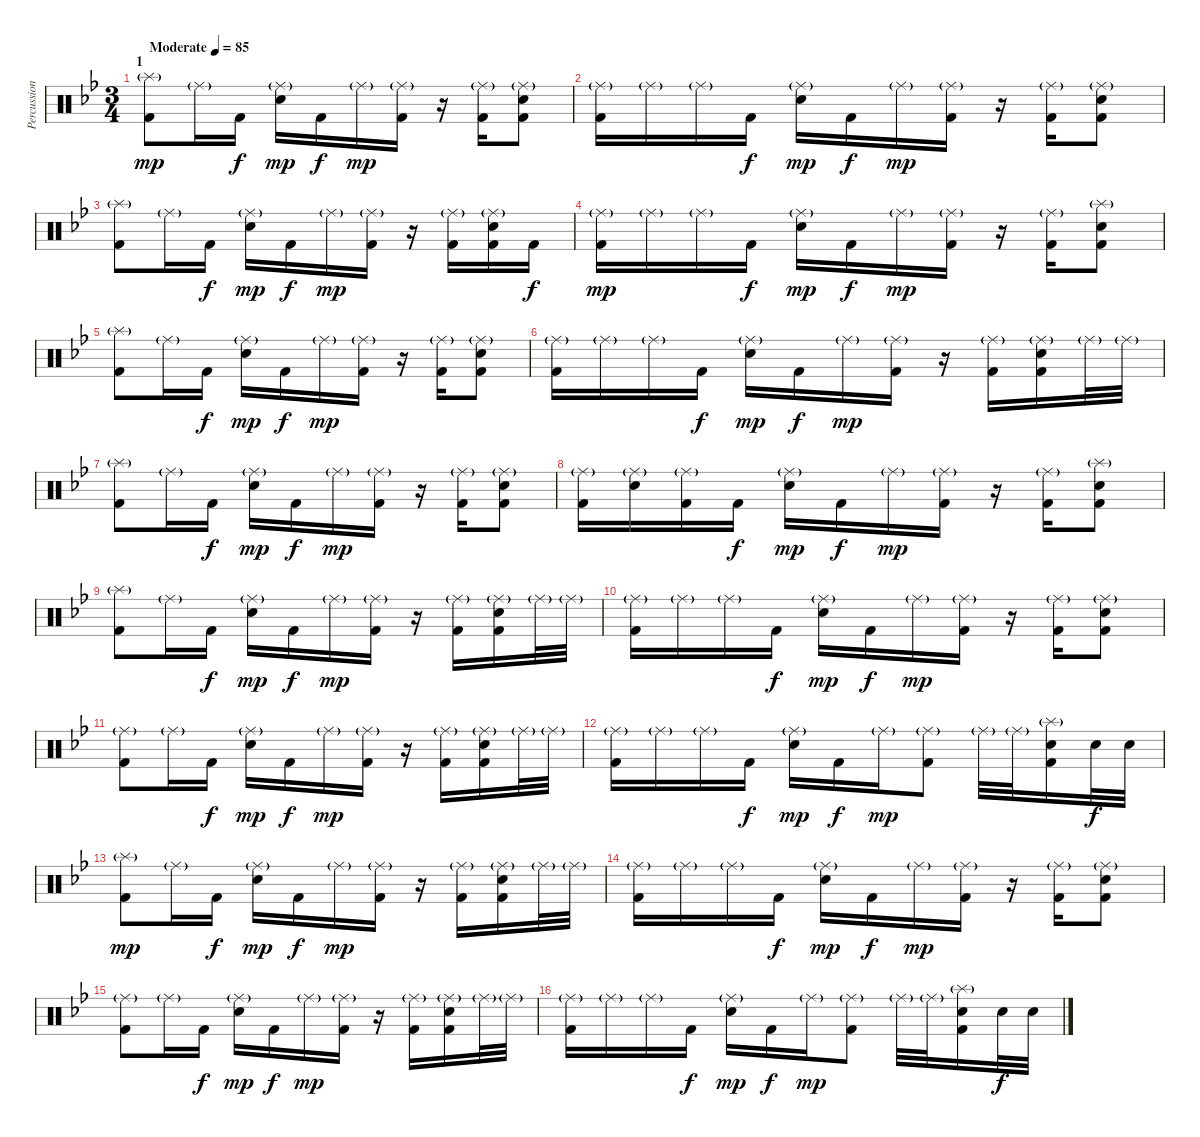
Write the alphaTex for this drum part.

\track ("Percussion" "Percussion") {instrument percussion}
\staff {score}
\articulation defaults
\ts (3 4)
\section ("" "1")
\tempo (85 "Moderate")
\clef neutral
\ks bb
("Splash (hit)"{g} "Kick (hit) 2").8{dy mp} "Ride (middle)"{g}.16 "Kick (hit) 2".16{dy f} ("Ride (middle)"{g} "Snare (hit) 2").16{dy mp} "Kick (hit) 2".16{dy f} "Ride (middle)"{g}.16{dy mp} ("Ride (middle)"{g} "Kick (hit) 2").16 r.16 ("Ride (middle)"{g} "Kick (hit) 2").16 ("Ride (middle)"{g} "Snare (hit) 2" "Kick (hit) 2").8 |
("Ride (middle)"{g} "Kick (hit) 2").16 "Ride (middle)"{g}.16 "Ride (middle)"{g}.16 "Kick (hit) 2".16{dy f} ("Ride (middle)"{g} "Snare (hit) 2").16{dy mp} "Kick (hit) 2".16{dy f} "Ride (middle)"{g}.16{dy mp} ("Ride (middle)"{g} "Kick (hit) 2").16 r.16 ("Ride (middle)"{g} "Kick (hit) 2").16 ("Ride (middle)"{g} "Snare (hit) 2" "Kick (hit) 2").8 |
("Splash (hit)"{g} "Kick (hit) 2").8 "Ride (middle)"{g}.16 "Kick (hit) 2".16{dy f} ("Ride (middle)"{g} "Snare (hit) 2").16{dy mp} "Kick (hit) 2".16{dy f} "Ride (middle)"{g}.16{dy mp} ("Ride (middle)"{g} "Kick (hit) 2").16 r.16 ("Ride (middle)"{g} "Kick (hit) 2").16 ("Ride (middle)"{g} "Snare (hit) 2" "Kick (hit) 2").16 "Kick (hit) 2".16{dy f} |
("Ride (middle)"{g} "Kick (hit) 2").16{dy mp} "Ride (middle)"{g}.16 "Ride (middle)"{g}.16 "Kick (hit) 2".16{dy f} ("Ride (middle)"{g} "Snare (hit) 2").16{dy mp} "Kick (hit) 2".16{dy f} "Ride (middle)"{g}.16{dy mp} ("Ride (middle)"{g} "Kick (hit) 2").16 r.16 ("Ride (middle)"{g} "Kick (hit) 2").16 ("Splash (hit)"{g} "Snare (hit) 2" "Kick (hit) 2").8 |
("Splash (hit)"{g} "Kick (hit) 2").8 "Ride (middle)"{g}.16 "Kick (hit) 2".16{dy f} ("Ride (middle)"{g} "Snare (hit) 2").16{dy mp} "Kick (hit) 2".16{dy f} "Ride (middle)"{g}.16{dy mp} ("Ride (middle)"{g} "Kick (hit) 2").16 r.16 ("Ride (middle)"{g} "Kick (hit) 2").16 ("Ride (middle)"{g} "Snare (hit) 2" "Kick (hit) 2").8 |
("Ride (middle)"{g} "Kick (hit) 2").16 "Ride (middle)"{g}.16 "Ride (middle)"{g}.16 "Kick (hit) 2".16{dy f} ("Ride (middle)"{g} "Snare (hit) 2").16{dy mp} "Kick (hit) 2".16{dy f} "Ride (middle)"{g}.16{dy mp} ("Ride (middle)"{g} "Kick (hit) 2").16 r.16 ("Ride (middle)"{g} "Kick (hit) 2").16 ("Ride (middle)"{g} "Snare (hit) 2" "Kick (hit) 2").16 "Ride (middle)"{g}.32 "Ride (middle)"{g}.32 |
("Splash (hit)"{g} "Kick (hit) 2").8 "Ride (middle)"{g}.16 "Kick (hit) 2".16{dy f} ("Ride (middle)"{g} "Snare (hit) 2").16{dy mp} "Kick (hit) 2".16{dy f} "Ride (middle)"{g}.16{dy mp} ("Ride (middle)"{g} "Kick (hit) 2").16 r.16 ("Ride (middle)"{g} "Kick (hit) 2").16 ("Ride (middle)"{g} "Snare (hit) 2" "Kick (hit) 2").8 |
("Ride (middle)"{g} "Kick (hit) 2").16 ("Ride (middle)"{g} "Snare (hit) 2").16 ("Ride (middle)"{g} "Kick (hit) 2").16 "Kick (hit) 2".16{dy f} ("Ride (middle)"{g} "Snare (hit) 2").16{dy mp} "Kick (hit) 2".16{dy f} "Ride (middle)"{g}.16{dy mp} ("Ride (middle)"{g} "Kick (hit) 2").16 r.16 ("Ride (middle)"{g} "Kick (hit) 2").16 ("Splash (hit)"{g} "Snare (hit) 2" "Kick (hit) 2").8 |
("Splash (hit)"{g} "Kick (hit) 2").8 "Ride (middle)"{g}.16 "Kick (hit) 2".16{dy f} ("Ride (middle)"{g} "Snare (hit) 2").16{dy mp} "Kick (hit) 2".16{dy f} "Ride (middle)"{g}.16{dy mp} ("Ride (middle)"{g} "Kick (hit) 2").16 r.16 ("Ride (middle)"{g} "Kick (hit) 2").16 ("Ride (middle)"{g} "Snare (hit) 2" "Kick (hit) 2").16 "Ride (middle)"{g}.32 "Ride (middle)"{g}.32 |
("Ride (middle)"{g} "Kick (hit) 2").16 "Ride (middle)"{g}.16 "Ride (middle)"{g}.16 "Kick (hit) 2".16{dy f} ("Ride (middle)"{g} "Snare (hit) 2").16{dy mp} "Kick (hit) 2".16{dy f} "Ride (middle)"{g}.16{dy mp} ("Ride (middle)"{g} "Kick (hit) 2").16 r.16 ("Ride (middle)"{g} "Kick (hit) 2").16 ("Ride (middle)"{g} "Snare (hit) 2" "Kick (hit) 2").8 |
("Ride (middle)"{g} "Kick (hit) 2").8 "Ride (middle)"{g}.16 "Kick (hit) 2".16{dy f} ("Ride (middle)"{g} "Snare (hit) 2").16{dy mp} "Kick (hit) 2".16{dy f} "Ride (middle)"{g}.16{dy mp} ("Ride (middle)"{g} "Kick (hit) 2").16 r.16 ("Ride (middle)"{g} "Kick (hit) 2").16 ("Ride (middle)"{g} "Snare (hit) 2" "Kick (hit) 2").16 "Ride (middle)"{g}.32 "Ride (middle)"{g}.32 |
("Ride (middle)"{g} "Kick (hit) 2").16 "Ride (middle)"{g}.16 "Ride (middle)"{g}.16 "Kick (hit) 2".16{dy f} ("Ride (middle)"{g} "Snare (hit) 2").16{dy mp} "Kick (hit) 2".16{dy f} "Ride (middle)"{g}.16{dy mp} ("Ride (middle)"{g} "Kick (hit) 2").8 "Ride (middle)"{g}.32 "Ride (middle)"{g}.32 ("Splash (hit)"{g} "Snare (hit) 2" "Kick (hit) 2").16 "Snare (hit) 2".32{dy f} "Snare (hit) 2".32 |
("Splash (hit)"{g} "Kick (hit) 2").8{dy mp} "Ride (middle)"{g}.16 "Kick (hit) 2".16{dy f} ("Ride (middle)"{g} "Snare (hit) 2").16{dy mp} "Kick (hit) 2".16{dy f} "Ride (middle)"{g}.16{dy mp} ("Ride (middle)"{g} "Kick (hit) 2").16 r.16 ("Ride (middle)"{g} "Kick (hit) 2").16 ("Ride (middle)"{g} "Snare (hit) 2" "Kick (hit) 2").16 "Ride (middle)"{g}.32 "Ride (middle)"{g}.32 |
("Ride (middle)"{g} "Kick (hit) 2").16 "Ride (middle)"{g}.16 "Ride (middle)"{g}.16 "Kick (hit) 2".16{dy f} ("Ride (middle)"{g} "Snare (hit) 2").16{dy mp} "Kick (hit) 2".16{dy f} "Ride (middle)"{g}.16{dy mp} ("Ride (middle)"{g} "Kick (hit) 2").16 r.16 ("Ride (middle)"{g} "Kick (hit) 2").16 ("Ride (middle)"{g} "Snare (hit) 2" "Kick (hit) 2").8 |
("Ride (middle)"{g} "Kick (hit) 2").8 "Ride (middle)"{g}.16 "Kick (hit) 2".16{dy f} ("Ride (middle)"{g} "Snare (hit) 2").16{dy mp} "Kick (hit) 2".16{dy f} "Ride (middle)"{g}.16{dy mp} ("Ride (middle)"{g} "Kick (hit) 2").16 r.16 ("Ride (middle)"{g} "Kick (hit) 2").16 ("Ride (middle)"{g} "Snare (hit) 2" "Kick (hit) 2").16 "Ride (middle)"{g}.32 "Ride (middle)"{g}.32 |
("Ride (middle)"{g} "Kick (hit) 2").16 "Ride (middle)"{g}.16 "Ride (middle)"{g}.16 "Kick (hit) 2".16{dy f} ("Ride (middle)"{g} "Snare (hit) 2").16{dy mp} "Kick (hit) 2".16{dy f} "Ride (middle)"{g}.16{dy mp} ("Ride (middle)"{g} "Kick (hit) 2").8 "Ride (middle)"{g}.32 "Ride (middle)"{g}.32 ("Splash (hit)"{g} "Snare (hit) 2" "Kick (hit) 2").16 "Snare (hit) 2".32{dy f} "Snare (hit) 2".32
